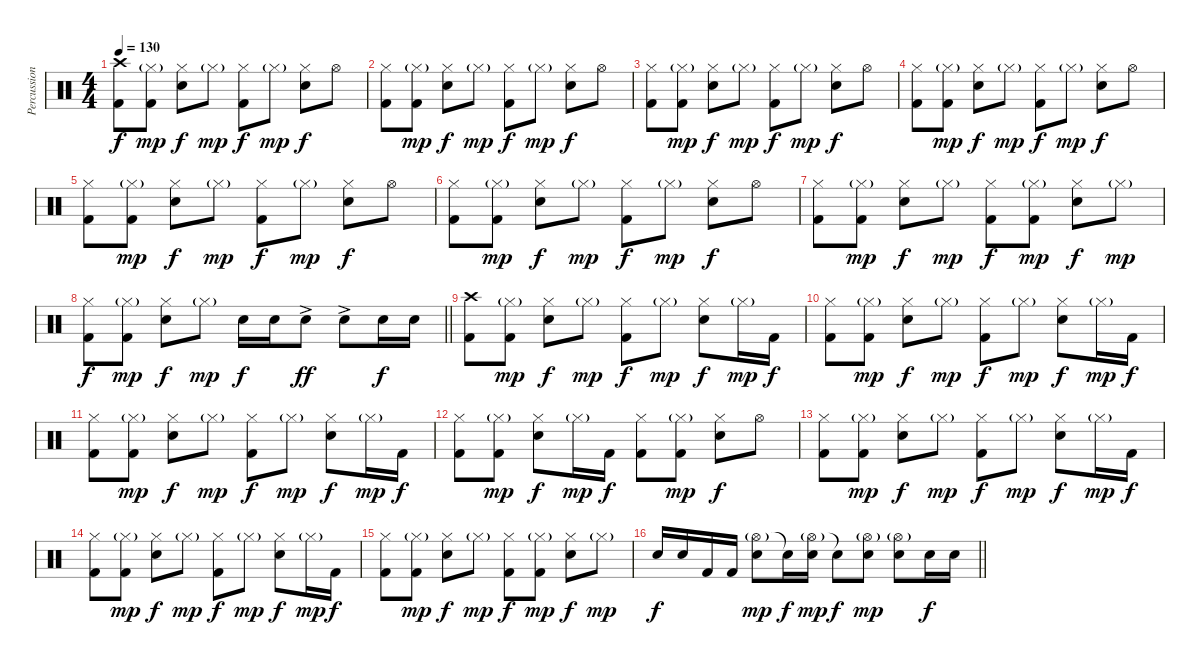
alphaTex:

\track ("Percussion" "Percussion") {instrument percussion}
\staff {score}
\articulation defaults
\ts (4 4)
\tempo 130
\clef neutral
\ks c
("Crash high (hit)" "Kick (hit) 2").8{dy f} ("Hi-Hat (closed)"{g} "Kick (hit) 2").8{dy mp} ("Hi-Hat (closed)" "Electric Snare (hit)").8{dy f} "Hi-Hat (closed)"{g}.8{dy mp} ("Hi-Hat (closed)" "Kick (hit) 2").8{dy f} "Hi-Hat (closed)"{g}.8{dy mp} ("Hi-Hat (closed)" "Electric Snare (hit)").8{dy f} "Hi-Hat (open)".8 |
("Hi-Hat (closed)" "Kick (hit) 2").8 ("Hi-Hat (closed)"{g} "Kick (hit) 2").8{dy mp} ("Hi-Hat (closed)" "Electric Snare (hit)").8{dy f} "Hi-Hat (closed)"{g}.8{dy mp} ("Hi-Hat (closed)" "Kick (hit) 2").8{dy f} "Hi-Hat (closed)"{g}.8{dy mp} ("Hi-Hat (closed)" "Electric Snare (hit)").8{dy f} "Hi-Hat (open)".8 |
("Hi-Hat (closed)" "Kick (hit) 2").8 ("Hi-Hat (closed)"{g} "Kick (hit) 2").8{dy mp} ("Hi-Hat (closed)" "Electric Snare (hit)").8{dy f} "Hi-Hat (closed)"{g}.8{dy mp} ("Hi-Hat (closed)" "Kick (hit) 2").8{dy f} "Hi-Hat (closed)"{g}.8{dy mp} ("Hi-Hat (closed)" "Electric Snare (hit)").8{dy f} "Hi-Hat (open)".8 |
("Hi-Hat (closed)" "Kick (hit) 2").8 ("Hi-Hat (closed)"{g} "Kick (hit) 2").8{dy mp} ("Hi-Hat (closed)" "Electric Snare (hit)").8{dy f} "Hi-Hat (closed)"{g}.8{dy mp} ("Hi-Hat (closed)" "Kick (hit) 2").8{dy f} "Hi-Hat (closed)"{g}.8{dy mp} ("Hi-Hat (closed)" "Electric Snare (hit)").8{dy f} "Hi-Hat (open)".8 |
("Hi-Hat (closed)" "Kick (hit) 2").8 ("Hi-Hat (closed)"{g} "Kick (hit) 2").8{dy mp} ("Hi-Hat (closed)" "Electric Snare (hit)").8{dy f} "Hi-Hat (closed)"{g}.8{dy mp} ("Hi-Hat (closed)" "Kick (hit) 2").8{dy f} "Hi-Hat (closed)"{g}.8{dy mp} ("Hi-Hat (closed)" "Electric Snare (hit)").8{dy f} "Hi-Hat (open)".8 |
("Hi-Hat (closed)" "Kick (hit) 2").8 ("Hi-Hat (closed)"{g} "Kick (hit) 2").8{dy mp} ("Hi-Hat (closed)" "Electric Snare (hit)").8{dy f} "Hi-Hat (closed)"{g}.8{dy mp} ("Hi-Hat (closed)" "Kick (hit) 2").8{dy f} "Hi-Hat (closed)"{g}.8{dy mp} ("Hi-Hat (closed)" "Electric Snare (hit)").8{dy f} "Hi-Hat (open)".8 |
("Hi-Hat (closed)" "Kick (hit) 2").8 ("Hi-Hat (closed)"{g} "Kick (hit) 2").8{dy mp} ("Hi-Hat (closed)" "Electric Snare (hit)").8{dy f} "Hi-Hat (closed)"{g}.8{dy mp} ("Hi-Hat (closed)" "Kick (hit) 2").8{dy f} ("Hi-Hat (closed)"{g} "Kick (hit) 2").8{dy mp} ("Hi-Hat (closed)" "Electric Snare (hit)").8{dy f} "Hi-Hat (closed)"{g}.8{dy mp} |
\barLineRight lightlight
("Hi-Hat (closed)" "Kick (hit) 2").8{dy f} ("Hi-Hat (closed)"{g} "Kick (hit) 2").8{dy mp} ("Hi-Hat (closed)" "Electric Snare (hit)").8{dy f} "Hi-Hat (closed)"{g}.8{dy mp} "Electric Snare (hit)".16{dy f} "Electric Snare (hit)".16 "Electric Snare (hit)"{ac}.8{dy ff} "Electric Snare (hit)"{ac}.8 "Electric Snare (hit)".16{dy f} "Electric Snare (hit)".16 |
("Crash high (hit)" "Kick (hit) 2").8 ("Hi-Hat (closed)"{g} "Kick (hit) 2").8{dy mp} ("Hi-Hat (closed)" "Electric Snare (hit)").8{dy f} "Hi-Hat (closed)"{g}.8{dy mp} ("Hi-Hat (closed)" "Kick (hit) 2").8{dy f} "Hi-Hat (closed)"{g}.8{dy mp} ("Hi-Hat (closed)" "Electric Snare (hit)").8{dy f} "Hi-Hat (closed)"{g}.16{dy mp} "Kick (hit) 2".16{dy f} |
("Hi-Hat (closed)" "Kick (hit) 2").8 ("Hi-Hat (closed)"{g} "Kick (hit) 2").8{dy mp} ("Hi-Hat (closed)" "Electric Snare (hit)").8{dy f} "Hi-Hat (closed)"{g}.8{dy mp} ("Hi-Hat (closed)" "Kick (hit) 2").8{dy f} "Hi-Hat (closed)"{g}.8{dy mp} ("Hi-Hat (closed)" "Electric Snare (hit)").8{dy f} "Hi-Hat (closed)"{g}.16{dy mp} "Kick (hit) 2".16{dy f} |
("Hi-Hat (closed)" "Kick (hit) 2").8 ("Hi-Hat (closed)"{g} "Kick (hit) 2").8{dy mp} ("Hi-Hat (closed)" "Electric Snare (hit)").8{dy f} "Hi-Hat (closed)"{g}.8{dy mp} ("Hi-Hat (closed)" "Kick (hit) 2").8{dy f} "Hi-Hat (closed)"{g}.8{dy mp} ("Hi-Hat (closed)" "Electric Snare (hit)").8{dy f} "Hi-Hat (closed)"{g}.16{dy mp} "Kick (hit) 2".16{dy f} |
("Hi-Hat (closed)" "Kick (hit) 2").8 ("Hi-Hat (closed)"{g} "Kick (hit) 2").8{dy mp} ("Hi-Hat (closed)" "Electric Snare (hit)").8{dy f} "Hi-Hat (closed)"{g}.16{dy mp} "Kick (hit) 2".16{dy f} ("Hi-Hat (closed)" "Kick (hit) 2").8 ("Hi-Hat (closed)"{g} "Kick (hit) 2").8{dy mp} ("Hi-Hat (closed)" "Electric Snare (hit)").8{dy f} "Hi-Hat (open)".8 |
("Hi-Hat (closed)" "Kick (hit) 2").8 ("Hi-Hat (closed)"{g} "Kick (hit) 2").8{dy mp} ("Hi-Hat (closed)" "Electric Snare (hit)").8{dy f} "Hi-Hat (closed)"{g}.8{dy mp} ("Hi-Hat (closed)" "Kick (hit) 2").8{dy f} "Hi-Hat (closed)"{g}.8{dy mp} ("Hi-Hat (closed)" "Electric Snare (hit)").8{dy f} "Hi-Hat (closed)"{g}.16{dy mp} "Kick (hit) 2".16{dy f} |
("Hi-Hat (closed)" "Kick (hit) 2").8 ("Hi-Hat (closed)"{g} "Kick (hit) 2").8{dy mp} ("Hi-Hat (closed)" "Electric Snare (hit)").8{dy f} "Hi-Hat (closed)"{g}.8{dy mp} ("Hi-Hat (closed)" "Kick (hit) 2").8{dy f} "Hi-Hat (closed)"{g}.8{dy mp} ("Hi-Hat (closed)" "Electric Snare (hit)").8{dy f} "Hi-Hat (closed)"{g}.16{dy mp} "Kick (hit) 2".16{dy f} |
("Hi-Hat (closed)" "Kick (hit) 2").8 ("Hi-Hat (closed)"{g} "Kick (hit) 2").8{dy mp} ("Hi-Hat (closed)" "Electric Snare (hit)").8{dy f} "Hi-Hat (closed)"{g}.8{dy mp} ("Hi-Hat (closed)" "Kick (hit) 2").8{dy f} ("Hi-Hat (closed)"{g} "Kick (hit) 2").8{dy mp} ("Hi-Hat (closed)" "Electric Snare (hit)").8{dy f} "Hi-Hat (closed)"{g}.8{dy mp} |
\barLineRight lightlight "Electric Snare (hit)".16{dy f} "Electric Snare (hit)".16 "Kick (hit) 2".16 "Kick (hit) 2".16
("Hi-Hat (open)"{g} "Electric Snare (hit)").8{dy mp} "Snare (hit)"{t}.16{dy f} ("Hi-Hat (open)"{g} "Electric Snare (hit)").16{dy mp} "Electric Snare (hit)"{t}.8{dy f} ("Hi-Hat (open)"{g} "Electric Snare (hit)").8{dy mp} ("Hi-Hat (open)"{g} "Electric Snare (hit)").8 "Electric Snare (hit)".16{dy f} "Electric Snare (hit)".16
